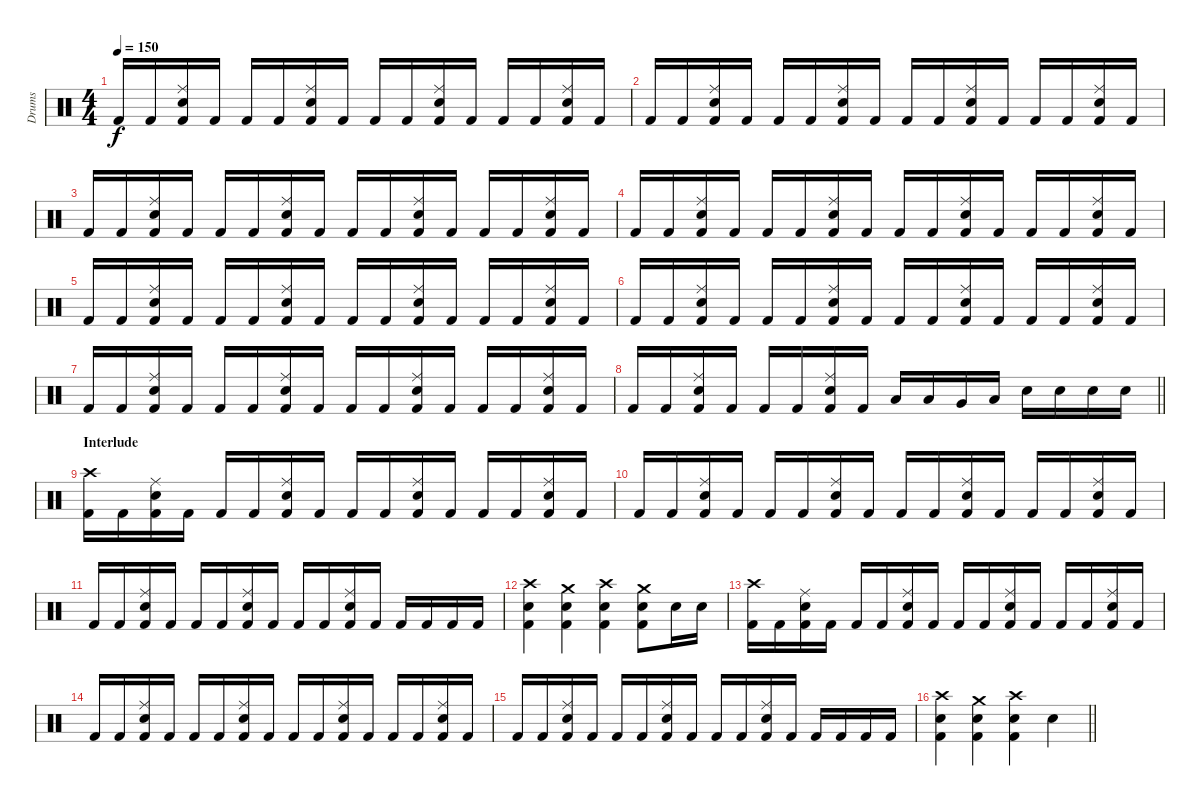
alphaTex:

\track ("Drums" "Drums") {instrument percussion}
\staff {score}
\articulation defaults
\ts (4 4)
\tempo 150
\clef neutral
\ks c "Kick (hit) 2".16{dy f} "Kick (hit) 2".16
("Ride (middle)" "Snare (hit) 2" "Kick (hit) 2").16 "Kick (hit) 2".16 "Kick (hit) 2".16 "Kick (hit) 2".16 ("Ride (middle)" "Snare (hit) 2" "Kick (hit) 2").16 "Kick (hit) 2".16 "Kick (hit) 2".16 "Kick (hit) 2".16 ("Ride (middle)" "Snare (hit) 2" "Kick (hit) 2").16 "Kick (hit) 2".16 "Kick (hit) 2".16 "Kick (hit) 2".16 ("Ride (middle)" "Snare (hit) 2" "Kick (hit) 2").16 "Kick (hit) 2".16 |
"Kick (hit) 2".16 "Kick (hit) 2".16 ("Ride (middle)" "Snare (hit) 2" "Kick (hit) 2").16 "Kick (hit) 2".16 "Kick (hit) 2".16 "Kick (hit) 2".16 ("Ride (middle)" "Snare (hit) 2" "Kick (hit) 2").16 "Kick (hit) 2".16 "Kick (hit) 2".16 "Kick (hit) 2".16 ("Ride (middle)" "Snare (hit) 2" "Kick (hit) 2").16 "Kick (hit) 2".16 "Kick (hit) 2".16 "Kick (hit) 2".16 ("Ride (middle)" "Snare (hit) 2" "Kick (hit) 2").16 "Kick (hit) 2".16 |
"Kick (hit) 2".16 "Kick (hit) 2".16 ("Ride (middle)" "Snare (hit) 2" "Kick (hit) 2").16 "Kick (hit) 2".16 "Kick (hit) 2".16 "Kick (hit) 2".16 ("Ride (middle)" "Snare (hit) 2" "Kick (hit) 2").16 "Kick (hit) 2".16 "Kick (hit) 2".16 "Kick (hit) 2".16 ("Ride (middle)" "Snare (hit) 2" "Kick (hit) 2").16 "Kick (hit) 2".16 "Kick (hit) 2".16 "Kick (hit) 2".16 ("Ride (middle)" "Snare (hit) 2" "Kick (hit) 2").16 "Kick (hit) 2".16 |
"Kick (hit) 2".16 "Kick (hit) 2".16 ("Ride (middle)" "Snare (hit) 2" "Kick (hit) 2").16 "Kick (hit) 2".16 "Kick (hit) 2".16 "Kick (hit) 2".16 ("Ride (middle)" "Snare (hit) 2" "Kick (hit) 2").16 "Kick (hit) 2".16 "Kick (hit) 2".16 "Kick (hit) 2".16 ("Ride (middle)" "Snare (hit) 2" "Kick (hit) 2").16 "Kick (hit) 2".16 "Kick (hit) 2".16 "Kick (hit) 2".16 ("Ride (middle)" "Snare (hit) 2" "Kick (hit) 2").16 "Kick (hit) 2".16 |
"Kick (hit) 2".16 "Kick (hit) 2".16 ("Ride (middle)" "Snare (hit) 2" "Kick (hit) 2").16 "Kick (hit) 2".16 "Kick (hit) 2".16 "Kick (hit) 2".16 ("Ride (middle)" "Snare (hit) 2" "Kick (hit) 2").16 "Kick (hit) 2".16 "Kick (hit) 2".16 "Kick (hit) 2".16 ("Ride (middle)" "Snare (hit) 2" "Kick (hit) 2").16 "Kick (hit) 2".16 "Kick (hit) 2".16 "Kick (hit) 2".16 ("Ride (middle)" "Snare (hit) 2" "Kick (hit) 2").16 "Kick (hit) 2".16 |
"Kick (hit) 2".16 "Kick (hit) 2".16 ("Ride (middle)" "Snare (hit) 2" "Kick (hit) 2").16 "Kick (hit) 2".16 "Kick (hit) 2".16 "Kick (hit) 2".16 ("Ride (middle)" "Snare (hit) 2" "Kick (hit) 2").16 "Kick (hit) 2".16 "Kick (hit) 2".16 "Kick (hit) 2".16 ("Ride (middle)" "Snare (hit) 2" "Kick (hit) 2").16 "Kick (hit) 2".16 "Kick (hit) 2".16 "Kick (hit) 2".16 ("Ride (middle)" "Snare (hit) 2" "Kick (hit) 2").16 "Kick (hit) 2".16 |
"Kick (hit) 2".16 "Kick (hit) 2".16 ("Ride (middle)" "Snare (hit) 2" "Kick (hit) 2").16 "Kick (hit) 2".16 "Kick (hit) 2".16 "Kick (hit) 2".16 ("Ride (middle)" "Snare (hit) 2" "Kick (hit) 2").16 "Kick (hit) 2".16 "Kick (hit) 2".16 "Kick (hit) 2".16 ("Ride (middle)" "Snare (hit) 2" "Kick (hit) 2").16 "Kick (hit) 2".16 "Kick (hit) 2".16 "Kick (hit) 2".16 ("Ride (middle)" "Snare (hit) 2" "Kick (hit) 2").16 "Kick (hit) 2".16 |
\barLineRight lightlight "Kick (hit) 2".16 "Kick (hit) 2".16
("Ride (middle)" "Snare (hit) 2" "Kick (hit) 2").16 "Kick (hit) 2".16 "Kick (hit) 2".16 "Kick (hit) 2".16 ("Ride (middle)" "Snare (hit) 2" "Kick (hit) 2").16 "Kick (hit) 2".16 "Low Tom (hit)".16 "Low Tom (hit)".16 "Very Low Tom (hit)".16 "Low Floor Tom (hit)".16 "Snare (hit) 2".16 "Snare (hit) 2".16 "Snare (hit) 2".16 "Snare (hit) 2".16 |
\section ("" "Interlude")
("Crash high (hit)" "Kick (hit) 2").16 "Kick (hit) 2".16 ("Ride (middle)" "Snare (hit) 2" "Kick (hit) 2").16 "Kick (hit) 2".16 "Kick (hit) 2".16 "Kick (hit) 2".16 ("Ride (middle)" "Snare (hit) 2" "Kick (hit) 2").16 "Kick (hit) 2".16 "Kick (hit) 2".16 "Kick (hit) 2".16 ("Ride (middle)" "Snare (hit) 2" "Kick (hit) 2").16 "Kick (hit) 2".16 "Kick (hit) 2".16 "Kick (hit) 2".16 ("Ride (middle)" "Snare (hit) 2" "Kick (hit) 2").16 "Kick (hit) 2".16 |
"Kick (hit) 2".16 "Kick (hit) 2".16 ("Ride (middle)" "Snare (hit) 2" "Kick (hit) 2").16 "Kick (hit) 2".16 "Kick (hit) 2".16 "Kick (hit) 2".16 ("Ride (middle)" "Snare (hit) 2" "Kick (hit) 2").16 "Kick (hit) 2".16 "Kick (hit) 2".16 "Kick (hit) 2".16 ("Ride (middle)" "Snare (hit) 2" "Kick (hit) 2").16 "Kick (hit) 2".16 "Kick (hit) 2".16 "Kick (hit) 2".16 ("Ride (middle)" "Snare (hit) 2" "Kick (hit) 2").16 "Kick (hit) 2".16 |
"Kick (hit) 2".16 "Kick (hit) 2".16 ("Ride (middle)" "Snare (hit) 2" "Kick (hit) 2").16 "Kick (hit) 2".16 "Kick (hit) 2".16 "Kick (hit) 2".16 ("Ride (middle)" "Snare (hit) 2" "Kick (hit) 2").16 "Kick (hit) 2".16 "Kick (hit) 2".16 "Kick (hit) 2".16 ("Ride (middle)" "Snare (hit) 2" "Kick (hit) 2").16 "Kick (hit) 2".16 "Kick (hit) 2".16 "Kick (hit) 2".16 "Kick (hit) 2".16 "Kick (hit) 2".16 |
("Crash high (hit)" "Snare (hit) 2" "Kick (hit) 2").4 ("Crash medium (hit)" "Snare (hit) 2" "Kick (hit) 2").4 ("Crash high (hit)" "Snare (hit) 2" "Kick (hit) 2").4 ("Crash medium (hit)" "Snare (hit) 2" "Kick (hit) 2").8 "Snare (hit) 2".16 "Snare (hit) 2".16 |
("Crash high (hit)" "Kick (hit) 2").16 "Kick (hit) 2".16 ("Ride (middle)" "Snare (hit) 2" "Kick (hit) 2").16 "Kick (hit) 2".16 "Kick (hit) 2".16 "Kick (hit) 2".16 ("Ride (middle)" "Snare (hit) 2" "Kick (hit) 2").16 "Kick (hit) 2".16 "Kick (hit) 2".16 "Kick (hit) 2".16 ("Ride (middle)" "Snare (hit) 2" "Kick (hit) 2").16 "Kick (hit) 2".16 "Kick (hit) 2".16 "Kick (hit) 2".16 ("Ride (middle)" "Snare (hit) 2" "Kick (hit) 2").16 "Kick (hit) 2".16 |
"Kick (hit) 2".16 "Kick (hit) 2".16 ("Ride (middle)" "Snare (hit) 2" "Kick (hit) 2").16 "Kick (hit) 2".16 "Kick (hit) 2".16 "Kick (hit) 2".16 ("Ride (middle)" "Snare (hit) 2" "Kick (hit) 2").16 "Kick (hit) 2".16 "Kick (hit) 2".16 "Kick (hit) 2".16 ("Ride (middle)" "Snare (hit) 2" "Kick (hit) 2").16 "Kick (hit) 2".16 "Kick (hit) 2".16 "Kick (hit) 2".16 ("Ride (middle)" "Snare (hit) 2" "Kick (hit) 2").16 "Kick (hit) 2".16 |
"Kick (hit) 2".16 "Kick (hit) 2".16 ("Ride (middle)" "Snare (hit) 2" "Kick (hit) 2").16 "Kick (hit) 2".16 "Kick (hit) 2".16 "Kick (hit) 2".16 ("Ride (middle)" "Snare (hit) 2" "Kick (hit) 2").16 "Kick (hit) 2".16 "Kick (hit) 2".16 "Kick (hit) 2".16 ("Ride (middle)" "Snare (hit) 2" "Kick (hit) 2").16 "Kick (hit) 2".16 "Kick (hit) 2".16 "Kick (hit) 2".16 "Kick (hit) 2".16 "Kick (hit) 2".16 |
\barLineRight lightlight
("Crash high (hit)" "Snare (hit) 2" "Kick (hit) 2").4 ("Crash medium (hit)" "Snare (hit) 2" "Kick (hit) 2").4 ("Crash high (hit)" "Snare (hit) 2" "Kick (hit) 2").4 "Snare (hit) 2".4
